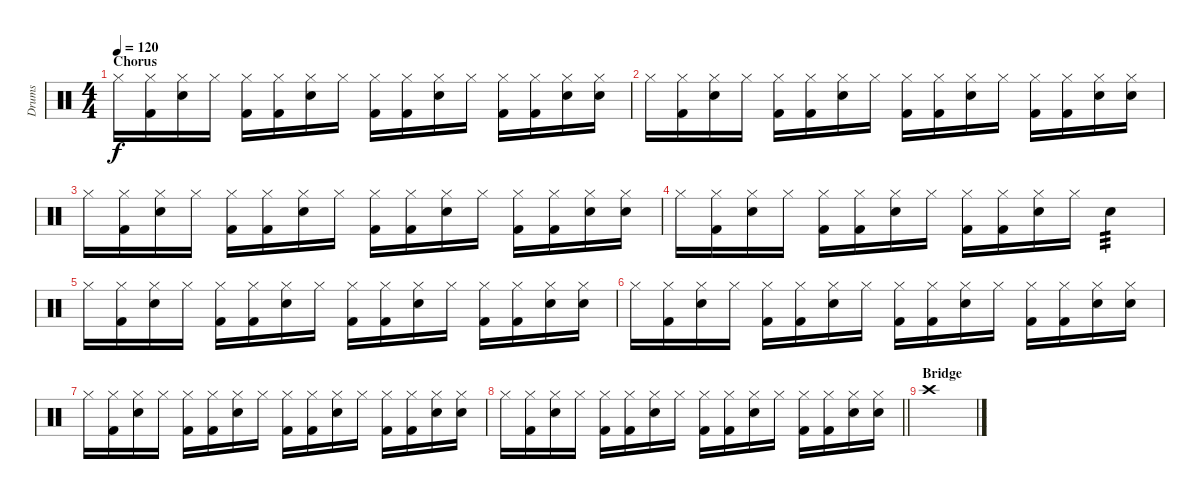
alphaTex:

\track ("Drums" "Drums") {instrument percussion}
\staff {score}
\articulation defaults
\ts (4 4)
\section ("" "Chorus")
\tempo 120
\clef neutral
\ks c "Hi-Hat (closed)".16{dy f}
("Hi-Hat (closed)" "Kick (hit) 2").16 ("Hi-Hat (closed)" "Electric Snare (hit)").16 "Hi-Hat (closed)".16 ("Hi-Hat (closed)" "Kick (hit) 2").16 ("Hi-Hat (closed)" "Kick (hit) 2").16 ("Hi-Hat (closed)" "Electric Snare (hit)").16 "Hi-Hat (closed)".16 ("Hi-Hat (closed)" "Kick (hit) 2").16 ("Hi-Hat (closed)" "Kick (hit) 2").16 ("Hi-Hat (closed)" "Electric Snare (hit)").16 "Hi-Hat (closed)".16 ("Hi-Hat (closed)" "Kick (hit) 2").16 ("Hi-Hat (closed)" "Kick (hit) 2").16 ("Hi-Hat (closed)" "Electric Snare (hit)").16 ("Hi-Hat (closed)" "Electric Snare (hit)").16 |
"Hi-Hat (closed)".16 ("Hi-Hat (closed)" "Kick (hit) 2").16 ("Hi-Hat (closed)" "Electric Snare (hit)").16 "Hi-Hat (closed)".16 ("Hi-Hat (closed)" "Kick (hit) 2").16 ("Hi-Hat (closed)" "Kick (hit) 2").16 ("Hi-Hat (closed)" "Electric Snare (hit)").16 "Hi-Hat (closed)".16 ("Hi-Hat (closed)" "Kick (hit) 2").16 ("Hi-Hat (closed)" "Kick (hit) 2").16 ("Hi-Hat (closed)" "Electric Snare (hit)").16 "Hi-Hat (closed)".16 ("Hi-Hat (closed)" "Kick (hit) 2").16 ("Hi-Hat (closed)" "Kick (hit) 2").16 ("Hi-Hat (closed)" "Electric Snare (hit)").16 ("Hi-Hat (closed)" "Electric Snare (hit)").16 |
"Hi-Hat (closed)".16 ("Hi-Hat (closed)" "Kick (hit) 2").16 ("Hi-Hat (closed)" "Electric Snare (hit)").16 "Hi-Hat (closed)".16 ("Hi-Hat (closed)" "Kick (hit) 2").16 ("Hi-Hat (closed)" "Kick (hit) 2").16 ("Hi-Hat (closed)" "Electric Snare (hit)").16 "Hi-Hat (closed)".16 ("Hi-Hat (closed)" "Kick (hit) 2").16 ("Hi-Hat (closed)" "Kick (hit) 2").16 ("Hi-Hat (closed)" "Electric Snare (hit)").16 "Hi-Hat (closed)".16 ("Hi-Hat (closed)" "Kick (hit) 2").16 ("Hi-Hat (closed)" "Kick (hit) 2").16 ("Hi-Hat (closed)" "Electric Snare (hit)").16 ("Hi-Hat (closed)" "Electric Snare (hit)").16 |
"Hi-Hat (closed)".16 ("Hi-Hat (closed)" "Kick (hit) 2").16 ("Hi-Hat (closed)" "Electric Snare (hit)").16 "Hi-Hat (closed)".16 ("Hi-Hat (closed)" "Kick (hit) 2").16 ("Hi-Hat (closed)" "Kick (hit) 2").16 ("Hi-Hat (closed)" "Electric Snare (hit)").16 "Hi-Hat (closed)".16 ("Hi-Hat (closed)" "Kick (hit) 2").16 ("Hi-Hat (closed)" "Kick (hit) 2").16 ("Hi-Hat (closed)" "Electric Snare (hit)").16 "Hi-Hat (closed)".16 "Electric Snare (hit)".4{tp 3} |
"Hi-Hat (closed)".16 ("Hi-Hat (closed)" "Kick (hit) 2").16 ("Hi-Hat (closed)" "Electric Snare (hit)").16 "Hi-Hat (closed)".16 ("Hi-Hat (closed)" "Kick (hit) 2").16 ("Hi-Hat (closed)" "Kick (hit) 2").16 ("Hi-Hat (closed)" "Electric Snare (hit)").16 "Hi-Hat (closed)".16 ("Hi-Hat (closed)" "Kick (hit) 2").16 ("Hi-Hat (closed)" "Kick (hit) 2").16 ("Hi-Hat (closed)" "Electric Snare (hit)").16 "Hi-Hat (closed)".16 ("Hi-Hat (closed)" "Kick (hit) 2").16 ("Hi-Hat (closed)" "Kick (hit) 2").16 ("Hi-Hat (closed)" "Electric Snare (hit)").16 ("Hi-Hat (closed)" "Electric Snare (hit)").16 |
"Hi-Hat (closed)".16 ("Hi-Hat (closed)" "Kick (hit) 2").16 ("Hi-Hat (closed)" "Electric Snare (hit)").16 "Hi-Hat (closed)".16 ("Hi-Hat (closed)" "Kick (hit) 2").16 ("Hi-Hat (closed)" "Kick (hit) 2").16 ("Hi-Hat (closed)" "Electric Snare (hit)").16 "Hi-Hat (closed)".16 ("Hi-Hat (closed)" "Kick (hit) 2").16 ("Hi-Hat (closed)" "Kick (hit) 2").16 ("Hi-Hat (closed)" "Electric Snare (hit)").16 "Hi-Hat (closed)".16 ("Hi-Hat (closed)" "Kick (hit) 2").16 ("Hi-Hat (closed)" "Kick (hit) 2").16 ("Hi-Hat (closed)" "Electric Snare (hit)").16 ("Hi-Hat (closed)" "Electric Snare (hit)").16 |
"Hi-Hat (closed)".16 ("Hi-Hat (closed)" "Kick (hit) 2").16 ("Hi-Hat (closed)" "Electric Snare (hit)").16 "Hi-Hat (closed)".16 ("Hi-Hat (closed)" "Kick (hit) 2").16 ("Hi-Hat (closed)" "Kick (hit) 2").16 ("Hi-Hat (closed)" "Electric Snare (hit)").16 "Hi-Hat (closed)".16 ("Hi-Hat (closed)" "Kick (hit) 2").16 ("Hi-Hat (closed)" "Kick (hit) 2").16 ("Hi-Hat (closed)" "Electric Snare (hit)").16 "Hi-Hat (closed)".16 ("Hi-Hat (closed)" "Kick (hit) 2").16 ("Hi-Hat (closed)" "Kick (hit) 2").16 ("Hi-Hat (closed)" "Electric Snare (hit)").16 ("Hi-Hat (closed)" "Electric Snare (hit)").16 |
\barLineRight lightlight "Hi-Hat (closed)".16
("Hi-Hat (closed)" "Kick (hit) 2").16 ("Hi-Hat (closed)" "Electric Snare (hit)").16 "Hi-Hat (closed)".16 ("Hi-Hat (closed)" "Kick (hit) 2").16 ("Hi-Hat (closed)" "Kick (hit) 2").16 ("Hi-Hat (closed)" "Electric Snare (hit)").16 "Hi-Hat (closed)".16 ("Hi-Hat (closed)" "Kick (hit) 2").16 ("Hi-Hat (closed)" "Kick (hit) 2").16 ("Hi-Hat (closed)" "Electric Snare (hit)").16 "Hi-Hat (closed)".16 ("Hi-Hat (closed)" "Kick (hit) 2").16 ("Hi-Hat (closed)" "Kick (hit) 2").16 ("Hi-Hat (closed)" "Electric Snare (hit)").16 ("Hi-Hat (closed)" "Electric Snare (hit)").16 |
\section ("" "Bridge")
"Crash high (hit)".1
